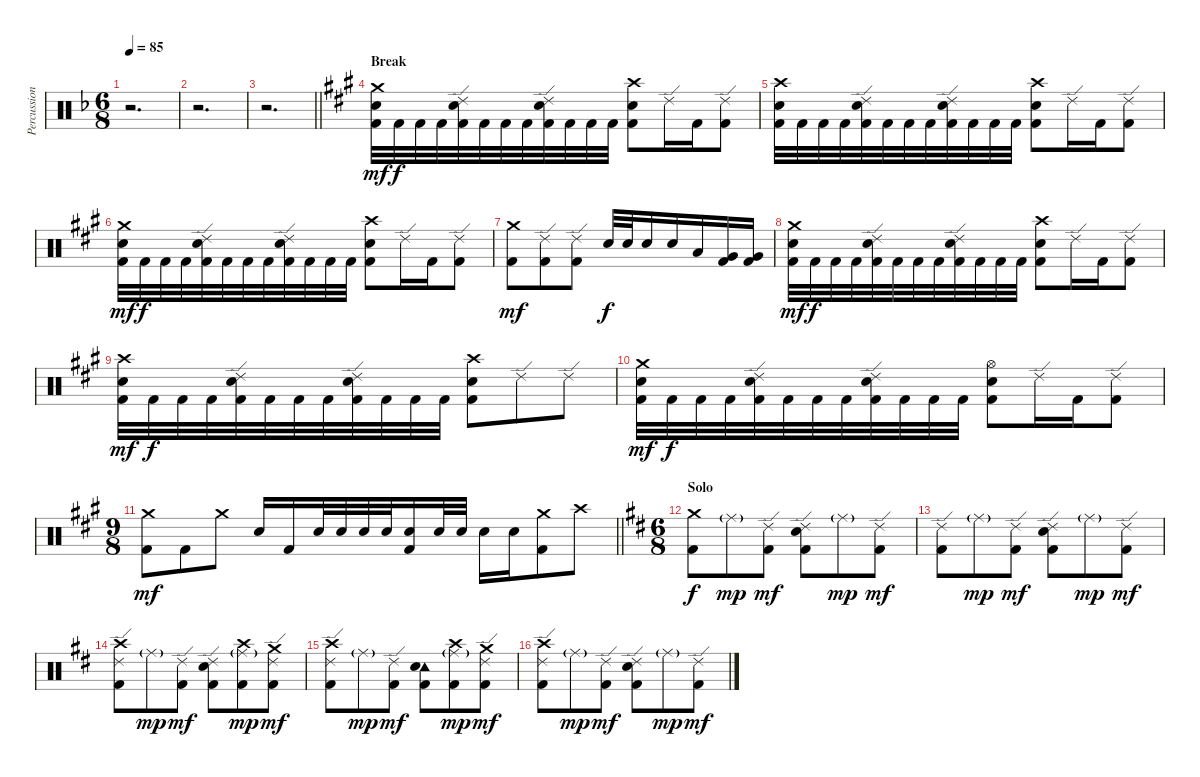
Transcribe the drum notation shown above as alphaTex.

\track ("Percussion (Daniele Carbonera)" "Percussion") {instrument percussion}
\staff {score}
\articulation defaults
\ts (6 8)
\tempo 85
\clef neutral
\ks dminor
r.2{d dy mf} |
r.2{d} |
\barLineRight lightlight
r.2{d} |
\section ("" "Break")
\ks f#minor
("Crash medium (hit)" "Electric Snare (hit)" "Kick (hit) 2").32 "Kick (hit) 2".32{dy f} "Kick (hit) 2".32 "Kick (hit) 2".32 ("Ride (edge) 2" "Electric Snare (hit)" "Kick (hit) 2").32 "Kick (hit) 2".32 "Kick (hit) 2".32 "Kick (hit) 2".32 ("Ride (edge) 2" "Electric Snare (hit)" "Kick (hit) 2").32 "Kick (hit) 2".32 "Kick (hit) 2".32 "Kick (hit) 2".32 ("Crash high (hit)" "Electric Snare (hit)" "Kick (hit) 2").8 "Ride (edge) 2".16 "Kick (hit) 2".16 ("Ride (edge) 2" "Kick (hit) 2").8 |
("Crash high (hit)" "Electric Snare (hit)" "Kick (hit) 2").32 "Kick (hit) 2".32 "Kick (hit) 2".32 "Kick (hit) 2".32 ("Ride (edge) 2" "Electric Snare (hit)" "Kick (hit) 2").32 "Kick (hit) 2".32 "Kick (hit) 2".32 "Kick (hit) 2".32 ("Ride (edge) 2" "Electric Snare (hit)" "Kick (hit) 2").32 "Kick (hit) 2".32 "Kick (hit) 2".32 "Kick (hit) 2".32 ("Crash high (hit)" "Electric Snare (hit)" "Kick (hit) 2").8 "Ride (edge) 2".16 "Kick (hit) 2".16 ("Ride (edge) 2" "Kick (hit) 2").8 |
("Crash medium (hit)" "Electric Snare (hit)" "Kick (hit) 2").32{dy mf} "Kick (hit) 2".32{dy f} "Kick (hit) 2".32 "Kick (hit) 2".32 ("Ride (edge) 2" "Electric Snare (hit)" "Kick (hit) 2").32 "Kick (hit) 2".32 "Kick (hit) 2".32 "Kick (hit) 2".32 ("Ride (edge) 2" "Electric Snare (hit)" "Kick (hit) 2").32 "Kick (hit) 2".32 "Kick (hit) 2".32 "Kick (hit) 2".32 ("Crash high (hit)" "Electric Snare (hit)" "Kick (hit) 2").8 "Ride (edge) 2".16 "Kick (hit) 2".16 ("Ride (edge) 2" "Kick (hit) 2").8 |
("Crash medium (hit)" "Kick (hit) 2").8{dy mf} ("Ride (edge) 2" "Kick (hit) 2").8 ("Ride (edge) 2" "Kick (hit) 2").8 "Electric Snare (hit)".32{dy f} "Electric Snare (hit)".32 "Electric Snare (hit)".16 "Electric Snare (hit)".16 "Low Tom (hit)".16 ("Very Low Tom (hit)" "Kick (hit) 2").16 ("Very Low Tom (hit)" "Kick (hit) 2").16 |
("Crash medium (hit)" "Electric Snare (hit)" "Kick (hit) 2").32{dy mf} "Kick (hit) 2".32{dy f} "Kick (hit) 2".32 "Kick (hit) 2".32 ("Ride (edge) 2" "Electric Snare (hit)" "Kick (hit) 2").32 "Kick (hit) 2".32 "Kick (hit) 2".32 "Kick (hit) 2".32 ("Ride (edge) 2" "Electric Snare (hit)" "Kick (hit) 2").32 "Kick (hit) 2".32 "Kick (hit) 2".32 "Kick (hit) 2".32 ("Crash high (hit)" "Electric Snare (hit)" "Kick (hit) 2").8 "Ride (edge) 2".16 "Kick (hit) 2".16 ("Ride (edge) 2" "Kick (hit) 2").8 |
("Crash high (hit)" "Electric Snare (hit)" "Kick (hit) 2").32{dy mf} "Kick (hit) 2".32{dy f} "Kick (hit) 2".32 "Kick (hit) 2".32 ("Ride (edge) 2" "Electric Snare (hit)" "Kick (hit) 2").32 "Kick (hit) 2".32 "Kick (hit) 2".32 "Kick (hit) 2".32 ("Ride (edge) 2" "Electric Snare (hit)" "Kick (hit) 2").32 "Kick (hit) 2".32 "Kick (hit) 2".32 "Kick (hit) 2".32 ("Crash high (hit)" "Electric Snare (hit)" "Kick (hit) 2").8 "Ride (edge) 2".8 "Ride (edge) 2".8 |
("Crash medium (hit)" "Electric Snare (hit)" "Kick (hit) 2").32{dy mf} "Kick (hit) 2".32{dy f} "Kick (hit) 2".32 "Kick (hit) 2".32 ("Ride (edge) 2" "Electric Snare (hit)" "Kick (hit) 2").32 "Kick (hit) 2".32 "Kick (hit) 2".32 "Kick (hit) 2".32 ("Ride (edge) 2" "Electric Snare (hit)" "Kick (hit) 2").32 "Kick (hit) 2".32 "Kick (hit) 2".32 "Kick (hit) 2".32 ("Hi-Hat (open)" "Electric Snare (hit)" "Kick (hit) 2").8 "Ride (edge) 2".16 "Kick (hit) 2".16 ("Ride (edge) 2" "Kick (hit) 2").8 |
\ts (9 8)
\barLineRight lightlight
("Crash medium (hit)" "Kick (hit) 2").8{dy mf} "Kick (hit) 2".8 "Crash medium (hit)".8 "Electric Snare (hit)".16 "Kick (hit) 2".16 "Electric Snare (hit)".32 "Electric Snare (hit)".32 "Electric Snare (hit)".32 "Electric Snare (hit)".32 ("Electric Snare (hit)" "Kick (hit) 2").16 "Electric Snare (hit)".32 "Electric Snare (hit)".32 "Electric Snare (hit)".16 "Electric Snare (hit)".16 ("Crash medium (hit)" "Kick (hit) 2").8 "Crash high (hit)".8 |
\ts (6 8)
\section ("" "Solo")
\ks bminor
("Crash medium (hit)" "Kick (hit) 2").8{dy f} "Ride (middle)"{g}.8{dy mp} ("Ride (edge) 2" "Kick (hit) 2").8{dy mf} ("Ride (edge) 2" "Electric Snare (hit)" "Kick (hit) 2").8 "Ride (middle)"{g}.8{dy mp} ("Ride (edge) 2" "Kick (hit) 2").8{dy mf} |
("Ride (edge) 2" "Kick (hit) 2").8 "Ride (middle)"{g}.8{dy mp} ("Ride (edge) 2" "Kick (hit) 2").8{dy mf} ("Ride (edge) 2" "Electric Snare (hit)" "Kick (hit) 2").8 "Ride (middle)"{g}.8{dy mp} ("Ride (edge) 2" "Kick (hit) 2").8{dy mf} |
("Crash high (hit)" "Ride (edge) 2" "Kick (hit) 2").8 "Ride (middle)"{g}.8{dy mp} ("Ride (edge) 2" "Kick (hit) 2").8{dy mf} ("Ride (edge) 2" "Electric Snare (hit)" "Kick (hit) 2").8 ("Crash high (hit)" "Ride (middle)"{g} "Kick (hit) 2").8{dy mp} ("Crash medium (hit)" "Ride (edge) 2" "Kick (hit) 2").8{dy mf} |
("Crash high (hit)" "Ride (edge) 2" "Kick (hit) 2").8 "Ride (middle)"{g}.8{dy mp} ("Ride (edge) 2" "Kick (hit) 2").8{dy mf} ("Tambourine (hit)" "Electric Snare (hit)" "Kick (hit) 2").8 ("Crash high (hit)" "Ride (middle)"{g} "Kick (hit) 2").8{dy mp} ("Crash medium (hit)" "Ride (edge) 2" "Kick (hit) 2").8{dy mf} |
("Crash high (hit)" "Ride (edge) 2" "Kick (hit) 2").8 "Ride (middle)"{g}.8{dy mp} ("Ride (edge) 2" "Kick (hit) 2").8{dy mf} ("Ride (edge) 2" "Electric Snare (hit)" "Kick (hit) 2").8 "Ride (middle)"{g}.8{dy mp} ("Ride (edge) 2" "Kick (hit) 2").8{dy mf}
